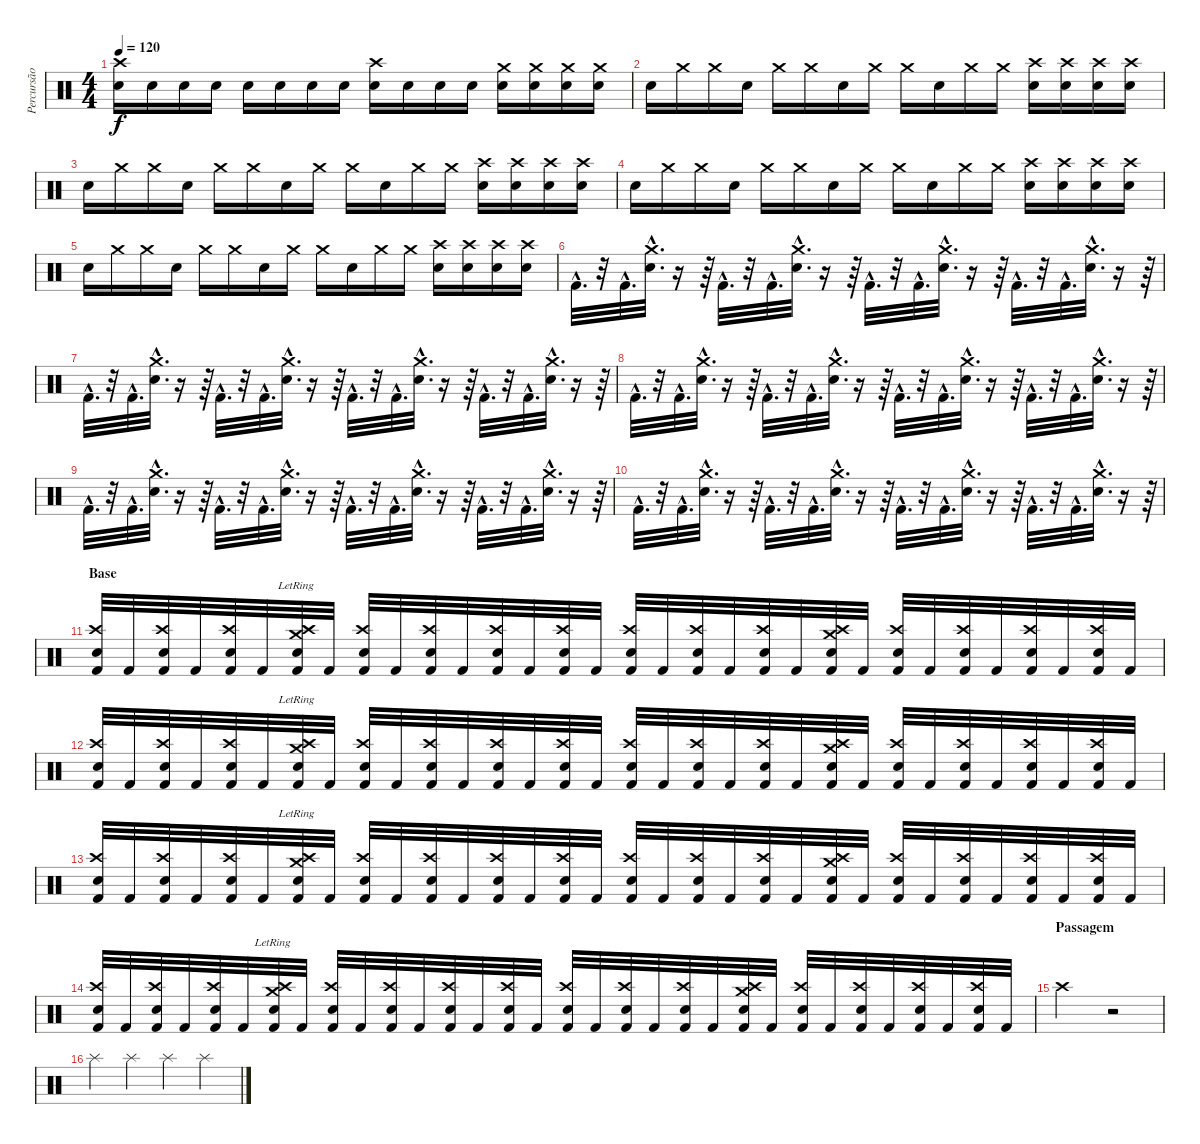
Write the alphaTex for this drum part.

\track ("Percursão" "Percursão") {instrument percussion}
\staff {score}
\articulation defaults
\ts (4 4)
\tempo 120
\clef neutral
\ks c
("Snare (hit) 2" "Crash high (hit)").16{dy f} "Snare (hit) 2".16 "Snare (hit) 2".16 "Snare (hit) 2".16 "Snare (hit) 2".16 "Snare (hit) 2".16 "Snare (hit) 2".16 "Snare (hit) 2".16 ("Snare (hit) 2" "Crash high (hit)").16 "Snare (hit) 2".16 "Snare (hit) 2".16 "Snare (hit) 2".16 ("Snare (hit) 2" "Crash medium (hit)").16 ("Snare (hit) 2" "Crash medium (hit)").16 ("Snare (hit) 2" "Crash medium (hit)").16 ("Snare (hit) 2" "Crash medium (hit)").16 |
"Snare (hit) 2".16 "Crash medium (hit)".16 "Crash medium (hit)".16 "Snare (hit) 2".16 "Crash medium (hit)".16 "Crash medium (hit)".16 "Snare (hit) 2".16 "Crash medium (hit)".16 "Crash medium (hit)".16 "Snare (hit) 2".16 "Crash medium (hit)".16 "Crash medium (hit)".16 ("Crash high (hit)" "Snare (hit) 2").16 ("Crash high (hit)" "Snare (hit) 2").16 ("Crash high (hit)" "Snare (hit) 2").16 ("Crash high (hit)" "Snare (hit) 2").16 |
"Snare (hit) 2".16 "Crash medium (hit)".16 "Crash medium (hit)".16 "Snare (hit) 2".16 "Crash medium (hit)".16 "Crash medium (hit)".16 "Snare (hit) 2".16 "Crash medium (hit)".16 "Crash medium (hit)".16 "Snare (hit) 2".16 "Crash medium (hit)".16 "Crash medium (hit)".16 ("Crash high (hit)" "Snare (hit) 2").16 ("Crash high (hit)" "Snare (hit) 2").16 ("Crash high (hit)" "Snare (hit) 2").16 ("Crash high (hit)" "Snare (hit) 2").16 |
"Snare (hit) 2".16 "Crash medium (hit)".16 "Crash medium (hit)".16 "Snare (hit) 2".16 "Crash medium (hit)".16 "Crash medium (hit)".16 "Snare (hit) 2".16 "Crash medium (hit)".16 "Crash medium (hit)".16 "Snare (hit) 2".16 "Crash medium (hit)".16 "Crash medium (hit)".16 ("Crash high (hit)" "Snare (hit) 2").16 ("Crash high (hit)" "Snare (hit) 2").16 ("Crash high (hit)" "Snare (hit) 2").16 ("Crash high (hit)" "Snare (hit) 2").16 |
"Snare (hit) 2".16 "Crash medium (hit)".16 "Crash medium (hit)".16 "Snare (hit) 2".16 "Crash medium (hit)".16 "Crash medium (hit)".16 "Snare (hit) 2".16 "Crash medium (hit)".16 "Crash medium (hit)".16 "Snare (hit) 2".16 "Crash medium (hit)".16 "Crash medium (hit)".16 ("Crash high (hit)" "Snare (hit) 2").16 ("Crash high (hit)" "Snare (hit) 2").16 ("Crash high (hit)" "Snare (hit) 2").16 ("Crash high (hit)" "Snare (hit) 2").16 |
"Kick (hit) 2"{hac}.32{d} r.32 "Kick (hit) 2"{hac}.32{d} ("Crash medium (hit)"{hac} "Snare (hit) 2"{hac}).32{d} r.16 r.64 "Kick (hit) 2"{hac}.32{d} r.32 "Kick (hit) 2"{hac}.32{d} ("Crash medium (hit)"{hac} "Snare (hit) 2"{hac}).32{d} r.16 r.64 "Kick (hit) 2"{hac}.32{d} r.32 "Kick (hit) 2"{hac}.32{d} ("Crash medium (hit)"{hac} "Snare (hit) 2"{hac}).32{d} r.16 r.64 "Kick (hit) 2"{hac}.32{d} r.32 "Kick (hit) 2"{hac}.32{d} ("Crash medium (hit)"{hac} "Snare (hit) 2"{hac}).32{d} r.16 r.64 |
"Kick (hit) 2"{hac}.32{d} r.32 "Kick (hit) 2"{hac}.32{d} ("Crash medium (hit)"{hac} "Snare (hit) 2"{hac}).32{d} r.16 r.64 "Kick (hit) 2"{hac}.32{d} r.32 "Kick (hit) 2"{hac}.32{d} ("Crash medium (hit)"{hac} "Snare (hit) 2"{hac}).32{d} r.16 r.64 "Kick (hit) 2"{hac}.32{d} r.32 "Kick (hit) 2"{hac}.32{d} ("Crash medium (hit)"{hac} "Snare (hit) 2"{hac}).32{d} r.16 r.64 "Kick (hit) 2"{hac}.32{d} r.32 "Kick (hit) 2"{hac}.32{d} ("Crash medium (hit)"{hac} "Snare (hit) 2"{hac}).32{d} r.16 r.64 |
"Kick (hit) 2"{hac}.32{d} r.32 "Kick (hit) 2"{hac}.32{d} ("Crash medium (hit)"{hac} "Snare (hit) 2"{hac}).32{d} r.16 r.64 "Kick (hit) 2"{hac}.32{d} r.32 "Kick (hit) 2"{hac}.32{d} ("Crash medium (hit)"{hac} "Snare (hit) 2"{hac}).32{d} r.16 r.64 "Kick (hit) 2"{hac}.32{d} r.32 "Kick (hit) 2"{hac}.32{d} ("Crash medium (hit)"{hac} "Snare (hit) 2"{hac}).32{d} r.16 r.64 "Kick (hit) 2"{hac}.32{d} r.32 "Kick (hit) 2"{hac}.32{d} ("Crash medium (hit)"{hac} "Snare (hit) 2"{hac}).32{d} r.16 r.64 |
"Kick (hit) 2"{hac}.32{d} r.32 "Kick (hit) 2"{hac}.32{d} ("Crash medium (hit)"{hac} "Snare (hit) 2"{hac}).32{d} r.16 r.64 "Kick (hit) 2"{hac}.32{d} r.32 "Kick (hit) 2"{hac}.32{d} ("Crash medium (hit)"{hac} "Snare (hit) 2"{hac}).32{d} r.16 r.64 "Kick (hit) 2"{hac}.32{d} r.32 "Kick (hit) 2"{hac}.32{d} ("Crash medium (hit)"{hac} "Snare (hit) 2"{hac}).32{d} r.16 r.64 "Kick (hit) 2"{hac}.32{d} r.32 "Kick (hit) 2"{hac}.32{d} ("Crash medium (hit)"{hac} "Snare (hit) 2"{hac}).32{d} r.16 r.64 |
"Kick (hit) 2"{hac}.32{d} r.32 "Kick (hit) 2"{hac}.32{d} ("Crash medium (hit)"{hac} "Snare (hit) 2"{hac}).32{d} r.16 r.64 "Kick (hit) 2"{hac}.32{d} r.32 "Kick (hit) 2"{hac}.32{d} ("Crash medium (hit)"{hac} "Snare (hit) 2"{hac}).32{d} r.16 r.64 "Kick (hit) 2"{hac}.32{d} r.32 "Kick (hit) 2"{hac}.32{d} ("Crash medium (hit)"{hac} "Snare (hit) 2"{hac}).32{d} r.16 r.64 "Kick (hit) 2"{hac}.32{d} r.32 "Kick (hit) 2"{hac}.32{d} ("Crash medium (hit)"{hac} "Snare (hit) 2"{hac}).32{d} r.16 r.64 |
\section ("" "Base")
("Crash high (hit)" "Snare (hit) 2" "Kick (hit) 2").32 "Kick (hit) 2".32 ("Crash high (hit)" "Snare (hit) 2" "Kick (hit) 2").32 "Kick (hit) 2".32 ("Crash high (hit)" "Snare (hit) 2" "Kick (hit) 2").32 "Kick (hit) 2".32 ("Crash high (hit)" "Crash medium (hit)"{lr} "Snare (hit) 2" "Kick (hit) 2").32 "Kick (hit) 2".32 ("Crash high (hit)" "Snare (hit) 2" "Kick (hit) 2").32 "Kick (hit) 2".32 ("Crash high (hit)" "Snare (hit) 2" "Kick (hit) 2").32 "Kick (hit) 2".32 ("Crash high (hit)" "Snare (hit) 2" "Kick (hit) 2").32 "Kick (hit) 2".32 ("Crash high (hit)" "Snare (hit) 2" "Kick (hit) 2").32 "Kick (hit) 2".32 ("Crash high (hit)" "Snare (hit) 2" "Kick (hit) 2").32 "Kick (hit) 2".32 ("Crash high (hit)" "Snare (hit) 2" "Kick (hit) 2").32 "Kick (hit) 2".32 ("Crash high (hit)" "Snare (hit) 2" "Kick (hit) 2").32 "Kick (hit) 2".32 ("Crash high (hit)" "Crash medium (hit)" "Snare (hit) 2" "Kick (hit) 2").32 "Kick (hit) 2".32 ("Crash high (hit)" "Snare (hit) 2" "Kick (hit) 2").32 "Kick (hit) 2".32 ("Crash high (hit)" "Snare (hit) 2" "Kick (hit) 2").32 "Kick (hit) 2".32 ("Crash high (hit)" "Snare (hit) 2" "Kick (hit) 2").32 "Kick (hit) 2".32 ("Crash high (hit)" "Snare (hit) 2" "Kick (hit) 2").32 "Kick (hit) 2".32 |
("Crash high (hit)" "Snare (hit) 2" "Kick (hit) 2").32 "Kick (hit) 2".32 ("Crash high (hit)" "Snare (hit) 2" "Kick (hit) 2").32 "Kick (hit) 2".32 ("Crash high (hit)" "Snare (hit) 2" "Kick (hit) 2").32 "Kick (hit) 2".32 ("Crash high (hit)" "Crash medium (hit)"{lr} "Snare (hit) 2" "Kick (hit) 2").32 "Kick (hit) 2".32 ("Crash high (hit)" "Snare (hit) 2" "Kick (hit) 2").32 "Kick (hit) 2".32 ("Crash high (hit)" "Snare (hit) 2" "Kick (hit) 2").32 "Kick (hit) 2".32 ("Crash high (hit)" "Snare (hit) 2" "Kick (hit) 2").32 "Kick (hit) 2".32 ("Crash high (hit)" "Snare (hit) 2" "Kick (hit) 2").32 "Kick (hit) 2".32 ("Crash high (hit)" "Snare (hit) 2" "Kick (hit) 2").32 "Kick (hit) 2".32 ("Crash high (hit)" "Snare (hit) 2" "Kick (hit) 2").32 "Kick (hit) 2".32 ("Crash high (hit)" "Snare (hit) 2" "Kick (hit) 2").32 "Kick (hit) 2".32 ("Crash high (hit)" "Crash medium (hit)" "Snare (hit) 2" "Kick (hit) 2").32 "Kick (hit) 2".32 ("Crash high (hit)" "Snare (hit) 2" "Kick (hit) 2").32 "Kick (hit) 2".32 ("Crash high (hit)" "Snare (hit) 2" "Kick (hit) 2").32 "Kick (hit) 2".32 ("Crash high (hit)" "Snare (hit) 2" "Kick (hit) 2").32 "Kick (hit) 2".32 ("Crash high (hit)" "Snare (hit) 2" "Kick (hit) 2").32 "Kick (hit) 2".32 |
("Crash high (hit)" "Snare (hit) 2" "Kick (hit) 2").32 "Kick (hit) 2".32 ("Crash high (hit)" "Snare (hit) 2" "Kick (hit) 2").32 "Kick (hit) 2".32 ("Crash high (hit)" "Snare (hit) 2" "Kick (hit) 2").32 "Kick (hit) 2".32 ("Crash high (hit)" "Crash medium (hit)"{lr} "Snare (hit) 2" "Kick (hit) 2").32 "Kick (hit) 2".32 ("Crash high (hit)" "Snare (hit) 2" "Kick (hit) 2").32 "Kick (hit) 2".32 ("Crash high (hit)" "Snare (hit) 2" "Kick (hit) 2").32 "Kick (hit) 2".32 ("Crash high (hit)" "Snare (hit) 2" "Kick (hit) 2").32 "Kick (hit) 2".32 ("Crash high (hit)" "Snare (hit) 2" "Kick (hit) 2").32 "Kick (hit) 2".32 ("Crash high (hit)" "Snare (hit) 2" "Kick (hit) 2").32 "Kick (hit) 2".32 ("Crash high (hit)" "Snare (hit) 2" "Kick (hit) 2").32 "Kick (hit) 2".32 ("Crash high (hit)" "Snare (hit) 2" "Kick (hit) 2").32 "Kick (hit) 2".32 ("Crash high (hit)" "Crash medium (hit)" "Snare (hit) 2" "Kick (hit) 2").32 "Kick (hit) 2".32 ("Crash high (hit)" "Snare (hit) 2" "Kick (hit) 2").32 "Kick (hit) 2".32 ("Crash high (hit)" "Snare (hit) 2" "Kick (hit) 2").32 "Kick (hit) 2".32 ("Crash high (hit)" "Snare (hit) 2" "Kick (hit) 2").32 "Kick (hit) 2".32 ("Crash high (hit)" "Snare (hit) 2" "Kick (hit) 2").32 "Kick (hit) 2".32 |
("Crash high (hit)" "Snare (hit) 2" "Kick (hit) 2").32 "Kick (hit) 2".32 ("Crash high (hit)" "Snare (hit) 2" "Kick (hit) 2").32 "Kick (hit) 2".32 ("Crash high (hit)" "Snare (hit) 2" "Kick (hit) 2").32 "Kick (hit) 2".32 ("Crash high (hit)" "Crash medium (hit)"{lr} "Snare (hit) 2" "Kick (hit) 2").32 "Kick (hit) 2".32 ("Crash high (hit)" "Snare (hit) 2" "Kick (hit) 2").32 "Kick (hit) 2".32 ("Crash high (hit)" "Snare (hit) 2" "Kick (hit) 2").32 "Kick (hit) 2".32 ("Crash high (hit)" "Snare (hit) 2" "Kick (hit) 2").32 "Kick (hit) 2".32 ("Crash high (hit)" "Snare (hit) 2" "Kick (hit) 2").32 "Kick (hit) 2".32 ("Crash high (hit)" "Snare (hit) 2" "Kick (hit) 2").32 "Kick (hit) 2".32 ("Crash high (hit)" "Snare (hit) 2" "Kick (hit) 2").32 "Kick (hit) 2".32 ("Crash high (hit)" "Snare (hit) 2" "Kick (hit) 2").32 "Kick (hit) 2".32 ("Crash high (hit)" "Crash medium (hit)" "Snare (hit) 2" "Kick (hit) 2").32 "Kick (hit) 2".32 ("Crash high (hit)" "Snare (hit) 2" "Kick (hit) 2").32 "Kick (hit) 2".32 ("Crash high (hit)" "Snare (hit) 2" "Kick (hit) 2").32 "Kick (hit) 2".32 ("Crash high (hit)" "Snare (hit) 2" "Kick (hit) 2").32 "Kick (hit) 2".32 ("Crash high (hit)" "Snare (hit) 2" "Kick (hit) 2").32 "Kick (hit) 2".32 |
\section ("" "Passagem")
"Crash high (hit)".2 r.2 |
"Splash (hit)".4 "Splash (hit)".4 "Splash (hit)".4 "Splash (hit)".4
